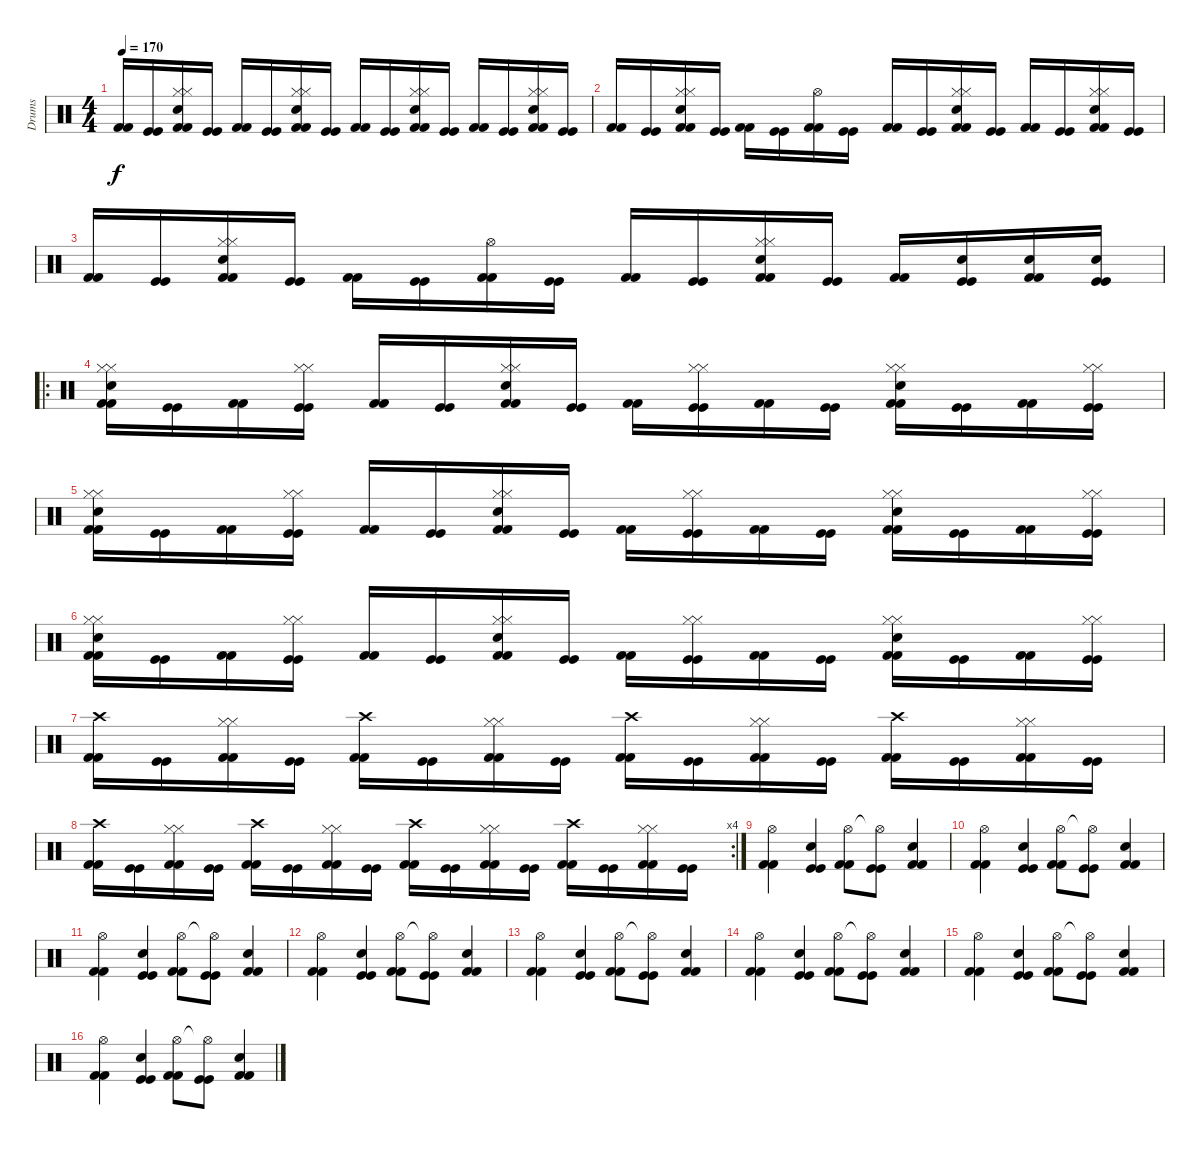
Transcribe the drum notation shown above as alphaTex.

\track ("Drums" "Drums") {instrument percussion}
\staff {score}
\articulation defaults
\ts (4 4)
\tempo 170
\clef neutral
\ks c
("Kick (hit) 2" "Kick (hit) 2").16{dy f} ("Kick (hit)" "Kick (hit)").16 ("Hi-Hat (closed)" "Hi-Hat (closed)" "Electric Snare (hit)" "Kick (hit) 2" "Kick (hit) 2").16 ("Kick (hit)" "Kick (hit)").16 ("Kick (hit) 2" "Kick (hit) 2").16 ("Kick (hit)" "Kick (hit)").16 ("Hi-Hat (closed)" "Hi-Hat (closed)" "Electric Snare (hit)" "Kick (hit) 2" "Kick (hit) 2").16 ("Kick (hit)" "Kick (hit)").16 ("Kick (hit) 2" "Kick (hit) 2").16 ("Kick (hit)" "Kick (hit)").16 ("Hi-Hat (closed)" "Hi-Hat (closed)" "Electric Snare (hit)" "Kick (hit) 2" "Kick (hit) 2").16 ("Kick (hit)" "Kick (hit)").16 ("Kick (hit) 2" "Kick (hit) 2").16 ("Kick (hit)" "Kick (hit)").16 ("Hi-Hat (closed)" "Hi-Hat (closed)" "Electric Snare (hit)" "Kick (hit) 2" "Kick (hit) 2").16 ("Kick (hit)" "Kick (hit)").16 |
("Kick (hit) 2" "Kick (hit) 2").16 ("Kick (hit)" "Kick (hit)").16 ("Hi-Hat (closed)" "Hi-Hat (closed)" "Electric Snare (hit)" "Kick (hit) 2" "Kick (hit) 2").16 ("Kick (hit)" "Kick (hit)").16 ("Kick (hit) 2" "Kick (hit) 2").16 ("Kick (hit)" "Kick (hit)").16 ("Hi-Hat (open)" "Kick (hit) 2" "Kick (hit) 2").16 ("Kick (hit)" "Kick (hit)").16 ("Kick (hit) 2" "Kick (hit) 2").16 ("Kick (hit)" "Kick (hit)").16 ("Hi-Hat (closed)" "Hi-Hat (closed)" "Electric Snare (hit)" "Kick (hit) 2" "Kick (hit) 2").16 ("Kick (hit)" "Kick (hit)").16 ("Kick (hit) 2" "Kick (hit) 2").16 ("Kick (hit)" "Kick (hit)").16 ("Hi-Hat (closed)" "Hi-Hat (closed)" "Electric Snare (hit)" "Kick (hit) 2" "Kick (hit) 2").16 ("Kick (hit)" "Kick (hit)").16 |
("Kick (hit) 2" "Kick (hit) 2").16 ("Kick (hit)" "Kick (hit)").16 ("Hi-Hat (closed)" "Hi-Hat (closed)" "Electric Snare (hit)" "Kick (hit) 2" "Kick (hit) 2").16 ("Kick (hit)" "Kick (hit)").16 ("Kick (hit) 2" "Kick (hit) 2").16 ("Kick (hit)" "Kick (hit)").16 ("Hi-Hat (open)" "Kick (hit) 2" "Kick (hit) 2").16 ("Kick (hit)" "Kick (hit)").16 ("Kick (hit) 2" "Kick (hit) 2").16 ("Kick (hit)" "Kick (hit)").16 ("Hi-Hat (closed)" "Hi-Hat (closed)" "Electric Snare (hit)" "Kick (hit) 2" "Kick (hit) 2").16 ("Kick (hit)" "Kick (hit)").16 ("Kick (hit) 2" "Kick (hit) 2").16 ("Electric Snare (hit)" "Kick (hit)" "Kick (hit)").16 ("Electric Snare (hit)" "Kick (hit) 2" "Kick (hit) 2").16 ("Electric Snare (hit)" "Kick (hit)" "Kick (hit)").16 |
\ro
("Kick (hit) 2" "Kick (hit) 2" "Electric Snare (hit)" "Hi-Hat (closed)" "Hi-Hat (closed)").16 ("Kick (hit)" "Kick (hit)").16 ("Kick (hit) 2" "Kick (hit) 2").16 ("Kick (hit)" "Kick (hit)" "Hi-Hat (closed)" "Hi-Hat (closed)").16 ("Kick (hit) 2" "Kick (hit) 2").16 ("Kick (hit)" "Kick (hit)").16 ("Kick (hit) 2" "Kick (hit) 2" "Electric Snare (hit)" "Hi-Hat (closed)" "Hi-Hat (closed)").16 ("Kick (hit)" "Kick (hit)").16 ("Kick (hit) 2" "Kick (hit) 2").16 ("Kick (hit)" "Kick (hit)" "Hi-Hat (closed)" "Hi-Hat (closed)").16 ("Kick (hit) 2" "Kick (hit) 2").16 ("Kick (hit)" "Kick (hit)").16 ("Kick (hit) 2" "Kick (hit) 2" "Electric Snare (hit)" "Hi-Hat (closed)" "Hi-Hat (closed)").16 ("Kick (hit)" "Kick (hit)").16 ("Kick (hit) 2" "Kick (hit) 2").16 ("Kick (hit)" "Kick (hit)" "Hi-Hat (closed)" "Hi-Hat (closed)").16 |
("Kick (hit) 2" "Kick (hit) 2" "Electric Snare (hit)" "Hi-Hat (closed)" "Hi-Hat (closed)").16 ("Kick (hit)" "Kick (hit)").16 ("Kick (hit) 2" "Kick (hit) 2").16 ("Kick (hit)" "Kick (hit)" "Hi-Hat (closed)" "Hi-Hat (closed)").16 ("Kick (hit) 2" "Kick (hit) 2").16 ("Kick (hit)" "Kick (hit)").16 ("Kick (hit) 2" "Kick (hit) 2" "Electric Snare (hit)" "Hi-Hat (closed)" "Hi-Hat (closed)").16 ("Kick (hit)" "Kick (hit)").16 ("Kick (hit) 2" "Kick (hit) 2").16 ("Kick (hit)" "Kick (hit)" "Hi-Hat (closed)" "Hi-Hat (closed)").16 ("Kick (hit) 2" "Kick (hit) 2").16 ("Kick (hit)" "Kick (hit)").16 ("Kick (hit) 2" "Kick (hit) 2" "Electric Snare (hit)" "Hi-Hat (closed)" "Hi-Hat (closed)").16 ("Kick (hit)" "Kick (hit)").16 ("Kick (hit) 2" "Kick (hit) 2").16 ("Kick (hit)" "Kick (hit)" "Hi-Hat (closed)" "Hi-Hat (closed)").16 |
("Kick (hit) 2" "Kick (hit) 2" "Electric Snare (hit)" "Hi-Hat (closed)" "Hi-Hat (closed)").16 ("Kick (hit)" "Kick (hit)").16 ("Kick (hit) 2" "Kick (hit) 2").16 ("Kick (hit)" "Kick (hit)" "Hi-Hat (closed)" "Hi-Hat (closed)").16 ("Kick (hit) 2" "Kick (hit) 2").16 ("Kick (hit)" "Kick (hit)").16 ("Kick (hit) 2" "Kick (hit) 2" "Electric Snare (hit)" "Hi-Hat (closed)" "Hi-Hat (closed)").16 ("Kick (hit)" "Kick (hit)").16 ("Kick (hit) 2" "Kick (hit) 2").16 ("Kick (hit)" "Kick (hit)" "Hi-Hat (closed)" "Hi-Hat (closed)").16 ("Kick (hit) 2" "Kick (hit) 2").16 ("Kick (hit)" "Kick (hit)").16 ("Kick (hit) 2" "Kick (hit) 2" "Electric Snare (hit)" "Hi-Hat (closed)" "Hi-Hat (closed)").16 ("Kick (hit)" "Kick (hit)").16 ("Kick (hit) 2" "Kick (hit) 2").16 ("Kick (hit)" "Kick (hit)" "Hi-Hat (closed)" "Hi-Hat (closed)").16 |
("Kick (hit) 2" "Kick (hit) 2" "Crash high (hit)").16 ("Kick (hit)" "Kick (hit)").16 ("Kick (hit) 2" "Kick (hit) 2" "Hi-Hat (closed)" "Hi-Hat (closed)").16 ("Kick (hit)" "Kick (hit)").16 ("Kick (hit) 2" "Kick (hit) 2" "Crash high (hit)").16 ("Kick (hit)" "Kick (hit)").16 ("Kick (hit) 2" "Kick (hit) 2" "Hi-Hat (closed)" "Hi-Hat (closed)").16 ("Kick (hit)" "Kick (hit)").16 ("Kick (hit) 2" "Kick (hit) 2" "Crash high (hit)").16 ("Kick (hit)" "Kick (hit)").16 ("Kick (hit) 2" "Kick (hit) 2" "Hi-Hat (closed)" "Hi-Hat (closed)").16 ("Kick (hit)" "Kick (hit)").16 ("Kick (hit) 2" "Kick (hit) 2" "Crash high (hit)").16 ("Kick (hit)" "Kick (hit)").16 ("Kick (hit) 2" "Kick (hit) 2" "Hi-Hat (closed)" "Hi-Hat (closed)").16 ("Kick (hit)" "Kick (hit)").16 |
\rc 4
("Kick (hit) 2" "Kick (hit) 2" "Crash high (hit)").16 ("Kick (hit)" "Kick (hit)").16 ("Kick (hit) 2" "Kick (hit) 2" "Hi-Hat (closed)" "Hi-Hat (closed)").16 ("Kick (hit)" "Kick (hit)").16 ("Kick (hit) 2" "Kick (hit) 2" "Crash high (hit)").16 ("Kick (hit)" "Kick (hit)").16 ("Kick (hit) 2" "Kick (hit) 2" "Hi-Hat (closed)" "Hi-Hat (closed)").16 ("Kick (hit)" "Kick (hit)").16 ("Kick (hit) 2" "Kick (hit) 2" "Crash high (hit)").16 ("Kick (hit)" "Kick (hit)").16 ("Kick (hit) 2" "Kick (hit) 2" "Hi-Hat (closed)" "Hi-Hat (closed)").16 ("Kick (hit)" "Kick (hit)").16 ("Kick (hit) 2" "Kick (hit) 2" "Crash high (hit)").16 ("Kick (hit)" "Kick (hit)").16 ("Kick (hit) 2" "Kick (hit) 2" "Hi-Hat (closed)" "Hi-Hat (closed)").16 ("Kick (hit)" "Kick (hit)").16 |
("Hi-Hat (open)" "Kick (hit) 2" "Kick (hit) 2").4 ("Electric Snare (hit)" "Kick (hit)" "Kick (hit)").4 ("Hi-Hat (open)" "Kick (hit) 2" "Kick (hit) 2").8 ("Hi-Hat (open)"{t} "Kick (hit)" "Kick (hit)").8 ("Electric Snare (hit)" "Kick (hit) 2" "Kick (hit) 2").4 |
("Hi-Hat (open)" "Kick (hit) 2" "Kick (hit) 2").4 ("Electric Snare (hit)" "Kick (hit)" "Kick (hit)").4 ("Hi-Hat (open)" "Kick (hit) 2" "Kick (hit) 2").8 ("Hi-Hat (open)"{t} "Kick (hit)" "Kick (hit)").8 ("Electric Snare (hit)" "Kick (hit) 2" "Kick (hit) 2").4 |
("Hi-Hat (open)" "Kick (hit) 2" "Kick (hit) 2").4 ("Electric Snare (hit)" "Kick (hit)" "Kick (hit)").4 ("Hi-Hat (open)" "Kick (hit) 2" "Kick (hit) 2").8 ("Hi-Hat (open)"{t} "Kick (hit)" "Kick (hit)").8 ("Electric Snare (hit)" "Kick (hit) 2" "Kick (hit) 2").4 |
("Hi-Hat (open)" "Kick (hit) 2" "Kick (hit) 2").4 ("Electric Snare (hit)" "Kick (hit)" "Kick (hit)").4 ("Hi-Hat (open)" "Kick (hit) 2" "Kick (hit) 2").8 ("Hi-Hat (open)"{t} "Kick (hit)" "Kick (hit)").8 ("Electric Snare (hit)" "Kick (hit) 2" "Kick (hit) 2").4 |
("Hi-Hat (open)" "Kick (hit) 2" "Kick (hit) 2").4 ("Electric Snare (hit)" "Kick (hit)" "Kick (hit)").4 ("Hi-Hat (open)" "Kick (hit) 2" "Kick (hit) 2").8 ("Hi-Hat (open)"{t} "Kick (hit)" "Kick (hit)").8 ("Electric Snare (hit)" "Kick (hit) 2" "Kick (hit) 2").4 |
("Hi-Hat (open)" "Kick (hit) 2" "Kick (hit) 2").4 ("Electric Snare (hit)" "Kick (hit)" "Kick (hit)").4 ("Hi-Hat (open)" "Kick (hit) 2" "Kick (hit) 2").8 ("Hi-Hat (open)"{t} "Kick (hit)" "Kick (hit)").8 ("Electric Snare (hit)" "Kick (hit) 2" "Kick (hit) 2").4 |
("Hi-Hat (open)" "Kick (hit) 2" "Kick (hit) 2").4 ("Electric Snare (hit)" "Kick (hit)" "Kick (hit)").4 ("Hi-Hat (open)" "Kick (hit) 2" "Kick (hit) 2").8 ("Hi-Hat (open)"{t} "Kick (hit)" "Kick (hit)").8 ("Electric Snare (hit)" "Kick (hit) 2" "Kick (hit) 2").4 |
("Hi-Hat (open)" "Kick (hit) 2" "Kick (hit) 2").4 ("Electric Snare (hit)" "Kick (hit)" "Kick (hit)").4 ("Hi-Hat (open)" "Kick (hit) 2" "Kick (hit) 2").8 ("Hi-Hat (open)"{t} "Kick (hit)" "Kick (hit)").8 ("Electric Snare (hit)" "Kick (hit) 2" "Kick (hit) 2").4
